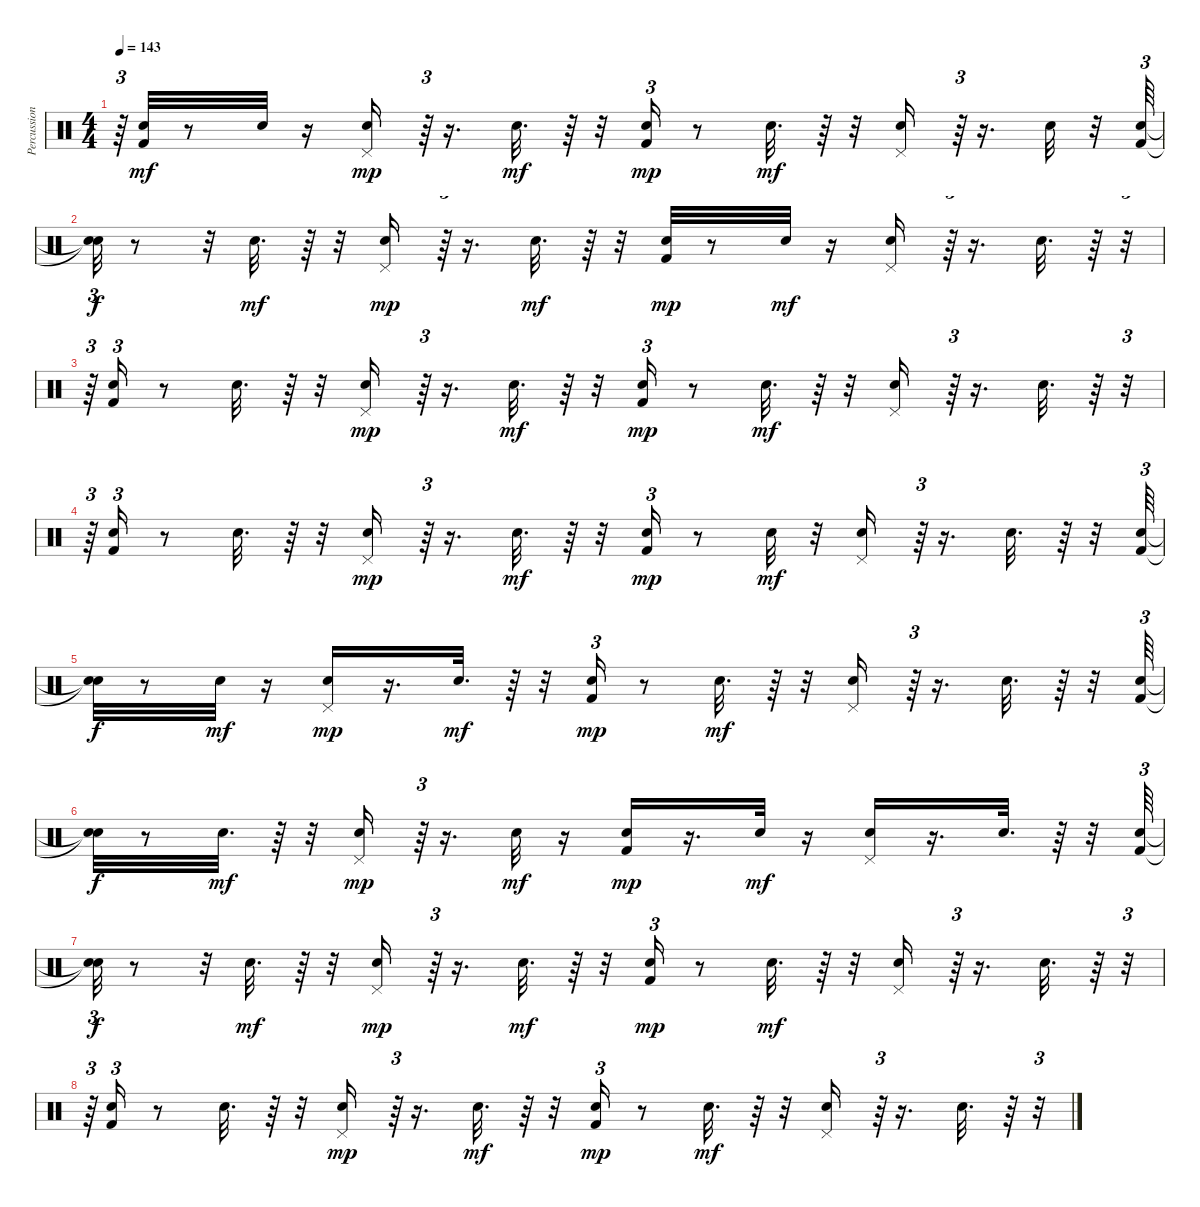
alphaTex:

\track ("Percussion" "Percussion") {instrument percussion}
\staff {score}
\articulation defaults
\ts (4 4)
\tempo 143
\clef neutral
\ks c
r.64{tu (3 2) dy mf} ("Kick (hit) 2" "Snare (hit) 2").32 r.8 "Snare (hit) 2".32 r.16 ("Hand Clap (hit)" "Pedal Hi-Hat (hit)").16{dy mp} r.64{tu (3 2)} r.16{d} "Hand Clap (hit)".32{d dy mf} r.64 r.32 ("Kick (hit) 2" "Snare (hit) 2").16{tu (3 2) dy mp} r.8 "Snare (hit) 2".32{d dy mf} r.64 r.32 ("Hand Clap (hit)" "Pedal Hi-Hat (hit)").16 r.64{tu (3 2)} r.16{d} "Hand Clap (hit)".32 r.32 ("Kick (hit) 2" "Snare (hit) 2").64{tu (3 2)} |
("Snare (hit)"{t} "Snare (hit)"{t}).32{tu (3 2) dy f} r.8 r.32 "Snare (hit) 2".32{d dy mf} r.64 r.32 ("Hand Clap (hit)" "Pedal Hi-Hat (hit)").16{dy mp} r.64{tu (3 2)} r.16{d} "Hand Clap (hit)".32{d dy mf} r.64 r.32 ("Kick (hit) 2" "Snare (hit) 2").32{dy mp} r.8 "Snare (hit) 2".32{dy mf} r.16 ("Hand Clap (hit)" "Pedal Hi-Hat (hit)").16 r.64{tu (3 2)} r.16{d} "Hand Clap (hit)".32{d} r.64 r.32{tu (3 2)} |
r.64{tu (3 2)} ("Kick (hit) 2" "Snare (hit) 2").16{tu (3 2)} r.8 "Snare (hit) 2".32{d} r.64 r.32 ("Hand Clap (hit)" "Pedal Hi-Hat (hit)").16{dy mp} r.64{tu (3 2)} r.16{d} "Hand Clap (hit)".32{d dy mf} r.64 r.32 ("Kick (hit) 2" "Snare (hit) 2").16{tu (3 2) dy mp} r.8 "Snare (hit) 2".32{d dy mf} r.64 r.32 ("Hand Clap (hit)" "Pedal Hi-Hat (hit)").16 r.64{tu (3 2)} r.16{d} "Hand Clap (hit)".32{d} r.64 r.32{tu (3 2)} |
r.64{tu (3 2)} ("Kick (hit) 2" "Snare (hit) 2").16{tu (3 2)} r.8 "Snare (hit) 2".32{d} r.64 r.32 ("Hand Clap (hit)" "Pedal Hi-Hat (hit)").16{dy mp} r.64{tu (3 2)} r.16{d} "Hand Clap (hit)".32{d dy mf} r.64 r.32 ("Kick (hit) 2" "Snare (hit) 2").16{tu (3 2) dy mp} r.8 "Snare (hit) 2".32{dy mf} r.32 ("Pedal Hi-Hat (hit)" "Hand Clap (hit)").16 r.64{tu (3 2)} r.16{d} "Hand Clap (hit)".32{d} r.64 r.32 ("Kick (hit) 2" "Snare (hit) 2").64{tu (3 2)} |
("Snare (hit)"{t} "Snare (hit)"{t}).32{dy f} r.8 "Snare (hit) 2".32{dy mf} r.16 ("Hand Clap (hit)" "Pedal Hi-Hat (hit)").16{dy mp} r.16{d} "Hand Clap (hit)".32{d dy mf} r.64 r.32 ("Kick (hit) 2" "Snare (hit) 2").16{tu (3 2) dy mp} r.8 "Snare (hit) 2".32{d dy mf} r.64 r.32 ("Hand Clap (hit)" "Pedal Hi-Hat (hit)").16 r.64{tu (3 2)} r.16{d} "Hand Clap (hit)".32{d} r.64 r.32 ("Kick (hit) 2" "Snare (hit) 2").64{tu (3 2)} |
("Snare (hit)"{t} "Snare (hit)"{t}).32{dy f} r.8 "Snare (hit) 2".32{d dy mf} r.64 r.32 ("Hand Clap (hit)" "Pedal Hi-Hat (hit)").16{dy mp} r.64{tu (3 2)} r.16{d} "Hand Clap (hit)".32{dy mf} r.16 ("Kick (hit) 2" "Snare (hit) 2").16{dy mp} r.16{d} "Snare (hit) 2".32{dy mf} r.16 ("Hand Clap (hit)" "Pedal Hi-Hat (hit)").16 r.16{d} "Hand Clap (hit)".32{d} r.64 r.32 ("Kick (hit) 2" "Snare (hit) 2").64{tu (3 2)} |
("Snare (hit)"{t} "Snare (hit)"{t}).32{tu (3 2) dy f} r.8 r.32 "Snare (hit) 2".32{d dy mf} r.64 r.32 ("Hand Clap (hit)" "Pedal Hi-Hat (hit)").16{dy mp} r.64{tu (3 2)} r.16{d} "Hand Clap (hit)".32{d dy mf} r.64 r.32 ("Kick (hit) 2" "Snare (hit) 2").16{tu (3 2) dy mp} r.8 "Snare (hit) 2".32{d dy mf} r.64 r.32 ("Hand Clap (hit)" "Pedal Hi-Hat (hit)").16 r.64{tu (3 2)} r.16{d} "Hand Clap (hit)".32{d} r.64 r.32{tu (3 2)} |
r.64{tu (3 2)} ("Kick (hit) 2" "Snare (hit) 2").16{tu (3 2)} r.8 "Snare (hit) 2".32{d} r.64 r.32 ("Hand Clap (hit)" "Pedal Hi-Hat (hit)").16{dy mp} r.64{tu (3 2)} r.16{d} "Hand Clap (hit)".32{d dy mf} r.64 r.32 ("Kick (hit) 2" "Snare (hit) 2").16{tu (3 2) dy mp} r.8 "Snare (hit) 2".32{d dy mf} r.64 r.32 ("Hand Clap (hit)" "Pedal Hi-Hat (hit)").16 r.64{tu (3 2)} r.16{d} "Hand Clap (hit)".32{d} r.64 r.32{tu (3 2)}
